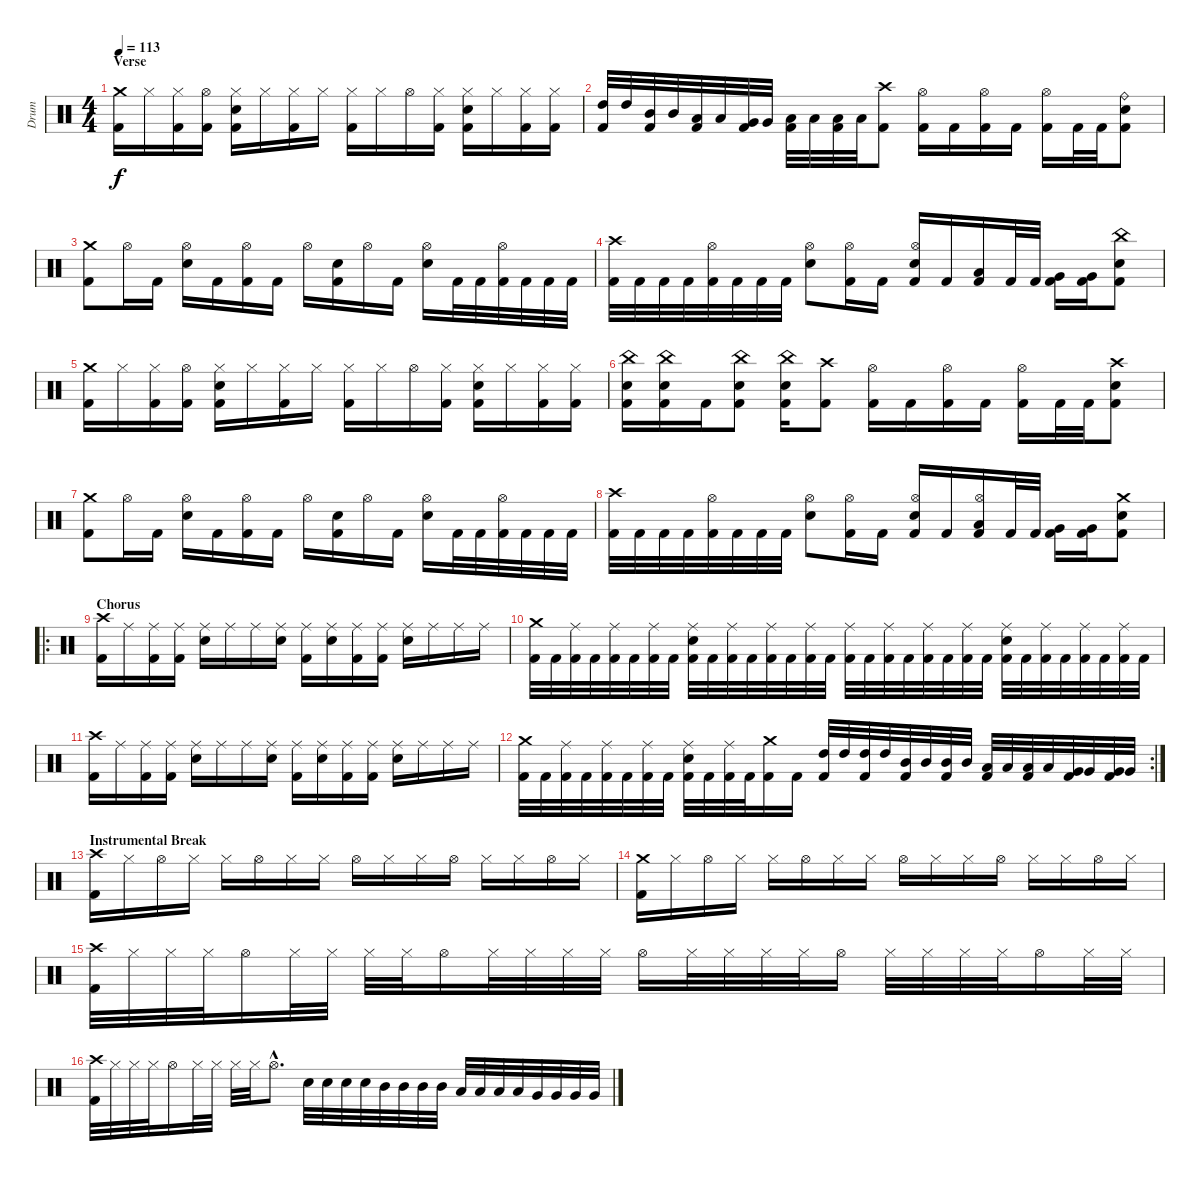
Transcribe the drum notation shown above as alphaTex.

\track ("Drum" "Drum") {instrument percussion}
\staff {score}
\articulation defaults
\ts (4 4)
\section ("" "Verse")
\tempo 113
\clef neutral
\ks c
("Crash medium (hit)" "Kick (hit) 2").16{dy f} "Hi-Hat (closed)".16 ("Hi-Hat (closed)" "Kick (hit) 2").16 ("Hi-Hat (open)" "Kick (hit) 2").16 ("Hi-Hat (closed)" "Electric Snare (hit)" "Kick (hit) 2").16 "Hi-Hat (closed)".16 ("Hi-Hat (closed)" "Kick (hit) 2").16 "Hi-Hat (closed)".16 ("Hi-Hat (closed)" "Kick (hit) 2").16 "Hi-Hat (closed)".16 "Hi-Hat (open)".16 ("Hi-Hat (closed)" "Kick (hit) 2").16 ("Hi-Hat (closed)" "Electric Snare (hit)" "Kick (hit) 2").16 "Hi-Hat (closed)".16 ("Hi-Hat (closed)" "Kick (hit) 2").16 ("Hi-Hat (closed)" "Kick (hit) 2").16 |
("High Tom (hit)" "Kick (hit) 2").32 "High Tom (hit)".32 ("Mid Tom (hit)" "Kick (hit) 2").32 "Mid Tom (hit)".32 ("Low Tom (hit)" "Kick (hit) 2").32 "Low Tom (hit)".32 ("Very Low Tom (hit)" "Kick (hit) 2").32 "Very Low Tom (hit)".32 ("Low Floor Tom (hit)" "Kick (hit) 2").32 "Low Floor Tom (hit)".32 ("Low Floor Tom (hit)" "Kick (hit) 2").32 "Low Floor Tom (hit)".32 ("Crash high (hit)" "Kick (hit) 2").8 ("Hi-Hat (open)" "Kick (hit) 2").16 "Kick (hit) 2".16 ("Hi-Hat (open)" "Kick (hit) 2").16 "Kick (hit) 2".16 ("Hi-Hat (open)" "Kick (hit) 2").16 "Kick (hit) 2".32 "Kick (hit) 2".32 ("Ride (bell)" "Electric Snare (hit)" "Kick (hit) 2").8 |
("Crash medium (hit)" "Kick (hit) 2").8 "Hi-Hat (open)".16 "Kick (hit) 2".16 ("Hi-Hat (open)" "Electric Snare (hit)").16 "Kick (hit) 2".16 ("Hi-Hat (open)" "Kick (hit) 2").16 "Kick (hit) 2".16 "Hi-Hat (open)".16 ("Electric Snare (hit)" "Kick (hit) 2").16 "Hi-Hat (open)".16 "Kick (hit) 2".16 ("Hi-Hat (open)" "Electric Snare (hit)").16 "Kick (hit) 2".32 "Kick (hit) 2".32 ("Hi-Hat (open)" "Kick (hit) 2").32 "Kick (hit) 2".32 "Kick (hit) 2".32 "Kick (hit) 2".32 |
("Crash high (hit)" "Kick (hit) 2").32 "Kick (hit) 2".32 "Kick (hit) 2".32 "Kick (hit) 2".32 ("Hi-Hat (open)" "Kick (hit) 2").32 "Kick (hit) 2".32 "Kick (hit) 2".32 "Kick (hit) 2".32 ("Hi-Hat (open)" "Electric Snare (hit)").8 ("Hi-Hat (open)" "Kick (hit) 2").16 "Kick (hit) 2".16 ("Hi-Hat (open)" "Electric Snare (hit)" "Kick (hit) 2").16 "Kick (hit) 2".16 ("Low Tom (hit)" "Kick (hit) 2").16 "Kick (hit) 2".32 "Kick (hit) 2".32 ("Very Low Tom (hit)" "Kick (hit) 2").16 ("Very Low Tom (hit)" "Kick (hit) 2").16 ("China (hit)" "Electric Snare (hit)" "Kick (hit) 2").8 |
("Crash medium (hit)" "Kick (hit) 2").16 "Hi-Hat (closed)".16 ("Hi-Hat (closed)" "Kick (hit) 2").16 ("Hi-Hat (open)" "Kick (hit) 2").16 ("Hi-Hat (closed)" "Electric Snare (hit)" "Kick (hit) 2").16 "Hi-Hat (closed)".16 ("Hi-Hat (closed)" "Kick (hit) 2").16 "Hi-Hat (closed)".16 ("Hi-Hat (closed)" "Kick (hit) 2").16 "Hi-Hat (closed)".16 "Hi-Hat (open)".16 ("Hi-Hat (closed)" "Kick (hit) 2").16 ("Hi-Hat (closed)" "Electric Snare (hit)" "Kick (hit) 2").16 "Hi-Hat (closed)".16 ("Hi-Hat (closed)" "Kick (hit) 2").16 ("Hi-Hat (closed)" "Kick (hit) 2").16 |
("China (hit)" "Electric Snare (hit)" "Kick (hit) 2").16 ("China (hit)" "Electric Snare (hit)" "Kick (hit) 2").16 "Kick (hit) 2".16 ("China (hit)" "Electric Snare (hit)" "Kick (hit) 2").8 ("China (hit)" "Electric Snare (hit)" "Kick (hit) 2").16 ("Crash high (hit)" "Kick (hit) 2").8 ("Hi-Hat (open)" "Kick (hit) 2").16 "Kick (hit) 2".16 ("Hi-Hat (open)" "Kick (hit) 2").16 "Kick (hit) 2".16 ("Hi-Hat (open)" "Kick (hit) 2").16 "Kick (hit) 2".32 "Kick (hit) 2".32 ("Crash high (hit)" "Electric Snare (hit)" "Kick (hit) 2").8 |
("Crash medium (hit)" "Kick (hit) 2").8 "Hi-Hat (open)".16 "Kick (hit) 2".16 ("Hi-Hat (open)" "Electric Snare (hit)").16 "Kick (hit) 2".16 ("Hi-Hat (open)" "Kick (hit) 2").16 "Kick (hit) 2".16 "Hi-Hat (open)".16 ("Electric Snare (hit)" "Kick (hit) 2").16 "Hi-Hat (open)".16 "Kick (hit) 2".16 ("Hi-Hat (open)" "Electric Snare (hit)").16 "Kick (hit) 2".32 "Kick (hit) 2".32 ("Hi-Hat (open)" "Kick (hit) 2").32 "Kick (hit) 2".32 "Kick (hit) 2".32 "Kick (hit) 2".32 |
("Crash high (hit)" "Kick (hit) 2").32 "Kick (hit) 2".32 "Kick (hit) 2".32 "Kick (hit) 2".32 ("Hi-Hat (open)" "Kick (hit) 2").32 "Kick (hit) 2".32 "Kick (hit) 2".32 "Kick (hit) 2".32 ("Hi-Hat (open)" "Electric Snare (hit)").8 ("Hi-Hat (open)" "Kick (hit) 2").16 "Kick (hit) 2".16 ("Hi-Hat (open)" "Electric Snare (hit)" "Kick (hit) 2").16 "Kick (hit) 2".16 ("Low Tom (hit)" "Hi-Hat (open)" "Kick (hit) 2").16 "Kick (hit) 2".32 "Kick (hit) 2".32 ("Very Low Tom (hit)" "Kick (hit) 2").16 ("Very Low Tom (hit)" "Kick (hit) 2").16 ("Crash medium (hit)" "Electric Snare (hit)" "Kick (hit) 2").8 |
\ro
\section ("" "Chorus")
("Crash high (hit)" "Kick (hit) 2").16 "Ride (middle)".16 ("Ride (middle)" "Kick (hit) 2").16 ("Ride (middle)" "Kick (hit) 2").16 ("Ride (middle)" "Electric Snare (hit)").16 "Ride (middle)".16 "Ride (middle)".16 ("Ride (middle)" "Electric Snare (hit)").16 ("Ride (middle)" "Kick (hit) 2").16 ("Ride (middle)" "Electric Snare (hit)").16 ("Ride (middle)" "Kick (hit) 2").16 ("Ride (middle)" "Kick (hit) 2").16 ("Ride (middle)" "Electric Snare (hit)").16 "Ride (middle)".16 "Ride (middle)".16 "Ride (middle)".16 |
("Crash medium (hit)" "Kick (hit) 2").32 "Kick (hit) 2".32 ("Ride (middle)" "Kick (hit) 2").32 "Kick (hit) 2".32 ("Ride (middle)" "Kick (hit) 2").32 "Kick (hit) 2".32 ("Ride (middle)" "Kick (hit) 2").32 "Kick (hit) 2".32 ("Ride (middle)" "Electric Snare (hit)" "Kick (hit) 2").32 "Kick (hit) 2".32 ("Ride (middle)" "Kick (hit) 2").32 "Kick (hit) 2".32 ("Ride (middle)" "Kick (hit) 2").32 "Kick (hit) 2".32 ("Ride (middle)" "Kick (hit) 2").32 "Kick (hit) 2".32 ("Ride (middle)" "Kick (hit) 2").32 "Kick (hit) 2".32 ("Ride (middle)" "Kick (hit) 2").32 "Kick (hit) 2".32 ("Ride (middle)" "Kick (hit) 2").32 "Kick (hit) 2".32 ("Ride (middle)" "Kick (hit) 2").32 "Kick (hit) 2".32 ("Ride (middle)" "Electric Snare (hit)" "Kick (hit) 2").32 "Kick (hit) 2".32 ("Ride (middle)" "Kick (hit) 2").32 "Kick (hit) 2".32 ("Ride (middle)" "Kick (hit) 2").32 "Kick (hit) 2".32 ("Ride (middle)" "Kick (hit) 2").32 "Kick (hit) 2".32 |
("Crash high (hit)" "Kick (hit) 2").16 "Ride (middle)".16 ("Ride (middle)" "Kick (hit) 2").16 ("Ride (middle)" "Kick (hit) 2").16 ("Ride (middle)" "Electric Snare (hit)").16 "Ride (middle)".16 "Ride (middle)".16 ("Ride (middle)" "Electric Snare (hit)").16 ("Ride (middle)" "Kick (hit) 2").16 ("Ride (middle)" "Electric Snare (hit)").16 ("Ride (middle)" "Kick (hit) 2").16 ("Ride (middle)" "Kick (hit) 2").16 ("Ride (middle)" "Electric Snare (hit)").16 "Ride (middle)".16 "Ride (middle)".16 "Ride (middle)".16 |
\rc 2
("Crash medium (hit)" "Kick (hit) 2").32 "Kick (hit) 2".32 ("Ride (middle)" "Kick (hit) 2").32 "Kick (hit) 2".32 ("Ride (middle)" "Kick (hit) 2").32 "Kick (hit) 2".32 ("Ride (middle)" "Kick (hit) 2").32 "Kick (hit) 2".32 ("Ride (middle)" "Electric Snare (hit)" "Kick (hit) 2").32 "Kick (hit) 2".32 ("Ride (middle)" "Kick (hit) 2").32 "Kick (hit) 2".32 ("Crash medium (hit)" "Kick (hit) 2").16 "Kick (hit) 2".16 ("High Tom (hit)" "Kick (hit) 2").32 "High Tom (hit)".32 ("High Tom (hit)" "Kick (hit) 2").32 "High Tom (hit)".32 ("Mid Tom (hit)" "Kick (hit) 2").32 "Mid Tom (hit)".32 ("Mid Tom (hit)" "Kick (hit) 2").32 "Mid Tom (hit)".32 ("Low Tom (hit)" "Kick (hit) 2").32 "Low Tom (hit)".32 ("Low Tom (hit)" "Kick (hit) 2").32 "Low Tom (hit)".32 ("Very Low Tom (hit)" "Kick (hit) 2").32 "Very Low Tom (hit)".32 ("Very Low Tom (hit)" "Kick (hit) 2").32 "Very Low Tom (hit)".32 |
\section ("" "Instrumental Break")
("Crash high (hit)" "Kick (hit) 2").16 "Hi-Hat (closed)".16 "Hi-Hat (open)".16 "Hi-Hat (closed)".16 "Hi-Hat (closed)".16 "Hi-Hat (open)".16 "Hi-Hat (closed)".16 "Hi-Hat (closed)".16 "Hi-Hat (open)".16 "Hi-Hat (closed)".16 "Hi-Hat (closed)".16 "Hi-Hat (open)".16 "Hi-Hat (closed)".16 "Hi-Hat (closed)".16 "Hi-Hat (open)".16 "Hi-Hat (closed)".16 |
("Crash medium (hit)" "Kick (hit) 2").16 "Hi-Hat (closed)".16 "Hi-Hat (open)".16 "Hi-Hat (closed)".16 "Hi-Hat (closed)".16 "Hi-Hat (open)".16 "Hi-Hat (closed)".16 "Hi-Hat (closed)".16 "Hi-Hat (open)".16 "Hi-Hat (closed)".16 "Hi-Hat (closed)".16 "Hi-Hat (open)".16 "Hi-Hat (closed)".16 "Hi-Hat (closed)".16 "Hi-Hat (open)".16 "Hi-Hat (closed)".16 |
("Crash high (hit)" "Kick (hit) 2").32 "Hi-Hat (closed)".32 "Hi-Hat (closed)".32 "Hi-Hat (closed)".32 "Hi-Hat (open)".16 "Hi-Hat (closed)".32 "Hi-Hat (closed)".32 "Hi-Hat (closed)".32 "Hi-Hat (closed)".32 "Hi-Hat (open)".16 "Hi-Hat (closed)".32 "Hi-Hat (closed)".32 "Hi-Hat (closed)".32 "Hi-Hat (closed)".32 "Hi-Hat (open)".16 "Hi-Hat (closed)".32 "Hi-Hat (closed)".32 "Hi-Hat (closed)".32 "Hi-Hat (closed)".32 "Hi-Hat (open)".16 "Hi-Hat (closed)".32 "Hi-Hat (closed)".32 "Hi-Hat (closed)".32 "Hi-Hat (closed)".32 "Hi-Hat (open)".16 "Hi-Hat (closed)".32 "Hi-Hat (closed)".32 |
("Crash high (hit)" "Kick (hit) 2").32 "Hi-Hat (closed)".32 "Hi-Hat (closed)".32 "Hi-Hat (closed)".32 "Hi-Hat (open)".16 "Hi-Hat (closed)".32 "Hi-Hat (closed)".32 "Hi-Hat (closed)".32 "Hi-Hat (closed)".32 "Hi-Hat (open)"{hac}.8{d} "Electric Snare (hit)".32 "Electric Snare (hit)".32 "Electric Snare (hit)".32 "Electric Snare (hit)".32 "Mid Tom (hit)".32 "Mid Tom (hit)".32 "Mid Tom (hit)".32 "Mid Tom (hit)".32 "Low Tom (hit)".32 "Low Tom (hit)".32 "Low Tom (hit)".32 "Low Tom (hit)".32 "Very Low Tom (hit)".32 "Very Low Tom (hit)".32 "Very Low Tom (hit)".32 "Very Low Tom (hit)".32
